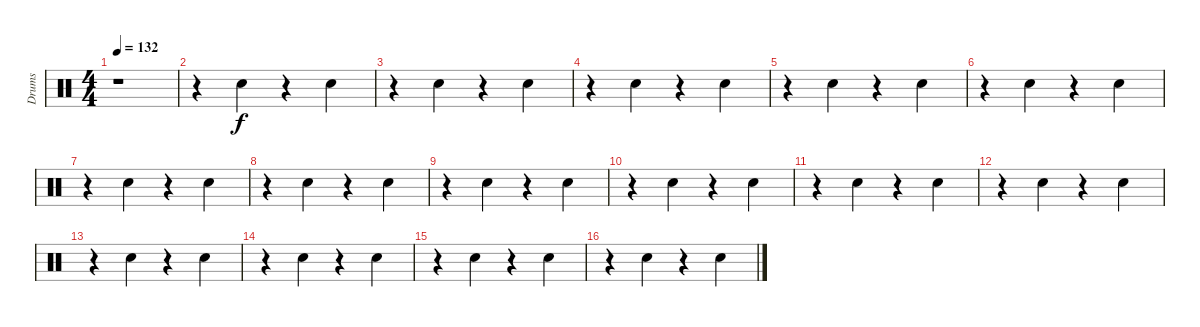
\track ("Drums" "Drums") {instrument percussion}
\staff {score}
\articulation defaults
\ts (4 4)
\tempo 132
\clef neutral
\ks c
r.1{dy f} |
r.4 "Electric Snare (hit)".4 r.4 "Electric Snare (hit)".4 |
r.4 "Electric Snare (hit)".4 r.4 "Electric Snare (hit)".4 |
r.4 "Electric Snare (hit)".4 r.4 "Electric Snare (hit)".4 |
r.4 "Electric Snare (hit)".4 r.4 "Electric Snare (hit)".4 |
r.4 "Electric Snare (hit)".4 r.4 "Electric Snare (hit)".4 |
r.4 "Electric Snare (hit)".4 r.4 "Electric Snare (hit)".4 |
r.4 "Electric Snare (hit)".4 r.4 "Electric Snare (hit)".4 |
r.4 "Electric Snare (hit)".4 r.4 "Electric Snare (hit)".4 |
r.4 "Electric Snare (hit)".4 r.4 "Electric Snare (hit)".4 |
r.4 "Electric Snare (hit)".4 r.4 "Electric Snare (hit)".4 |
r.4 "Electric Snare (hit)".4 r.4 "Electric Snare (hit)".4 |
r.4 "Electric Snare (hit)".4 r.4 "Electric Snare (hit)".4 |
r.4 "Electric Snare (hit)".4 r.4 "Electric Snare (hit)".4 |
r.4 "Electric Snare (hit)".4 r.4 "Electric Snare (hit)".4 |
r.4 "Electric Snare (hit)".4 r.4 "Electric Snare (hit)".4
